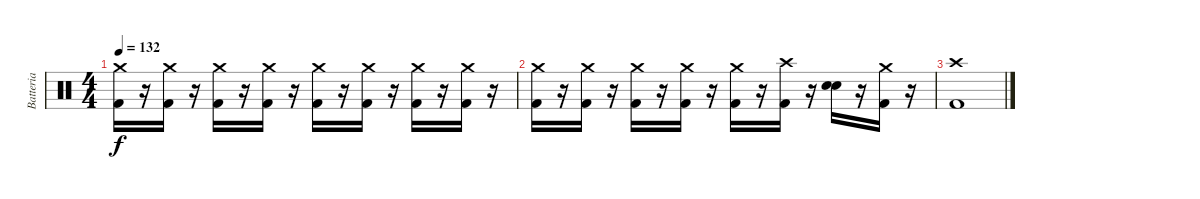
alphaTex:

\track ("Batteria" "Batteria") {instrument percussion}
\staff {score}
\articulation defaults
\ts (4 4)
\tempo 132
\clef neutral
\ks c
("Kick (hit) 2" "Crash medium (hit)").16{dy f} r.16 ("Kick (hit) 2" "Crash medium (hit)").16 r.16 ("Kick (hit) 2" "Crash medium (hit)").16 r.16 ("Kick (hit) 2" "Crash medium (hit)").16 r.16 ("Kick (hit) 2" "Crash medium (hit)").16 r.16 ("Kick (hit) 2" "Crash medium (hit)").16 r.16 ("Kick (hit) 2" "Crash medium (hit)").16 r.16 ("Kick (hit) 2" "Crash medium (hit)").16 r.16 |
("Kick (hit) 2" "Crash medium (hit)").16 r.16 ("Kick (hit) 2" "Crash medium (hit)").16 r.16 ("Kick (hit) 2" "Crash medium (hit)").16 r.16 ("Kick (hit) 2" "Crash medium (hit)").16 r.16 ("Kick (hit) 2" "Crash medium (hit)").16 r.16 ("Kick (hit) 2" "Crash high (hit)").16 r.16 ("Snare (hit) 2" "Snare (hit) 2").16 r.16 ("Kick (hit) 2" "Crash medium (hit)").16 r.16 |
("Kick (hit) 2" "Crash high (hit)").1
